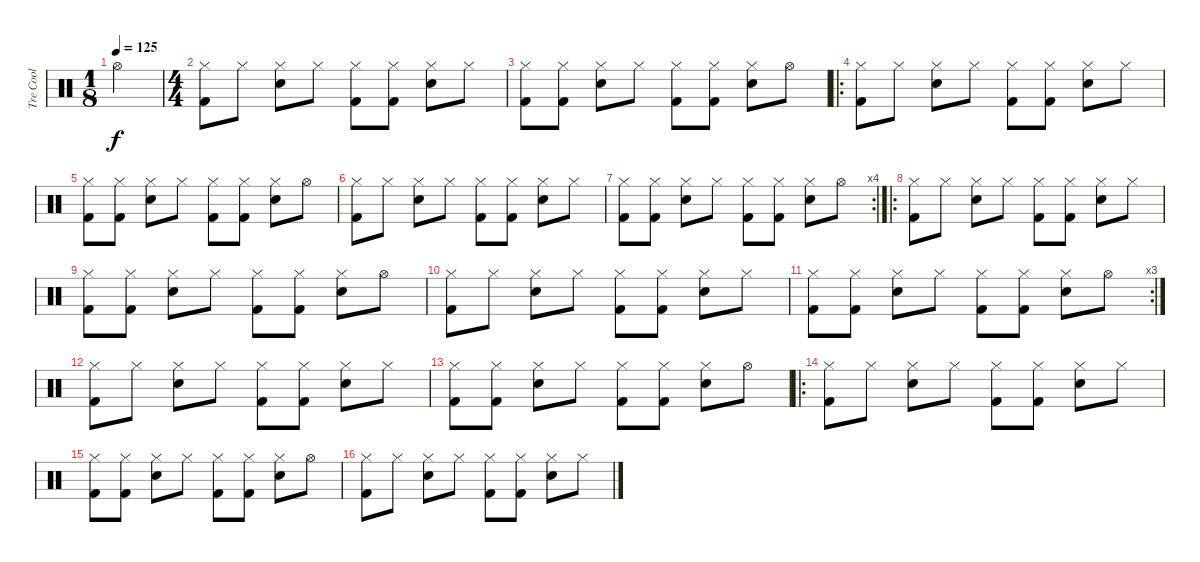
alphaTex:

\track ("Tre Cool" "Tre Cool") {instrument percussion}
\staff {score}
\articulation defaults
\ts (1 8)
\tempo 125
\clef neutral
\ks c "Hi-Hat (open)".4{dy f}
|
\ts (4 4)
("Hi-Hat (closed)" "Kick (hit) 2").8 "Hi-Hat (closed)".8 ("Hi-Hat (closed)" "Electric Snare (hit)").8 "Hi-Hat (closed)".8 ("Hi-Hat (closed)" "Kick (hit) 2").8 ("Hi-Hat (closed)" "Kick (hit) 2").8 ("Hi-Hat (closed)" "Electric Snare (hit)").8 "Hi-Hat (closed)".8 |
("Hi-Hat (closed)" "Kick (hit) 2").8 ("Hi-Hat (closed)" "Kick (hit) 2").8 ("Hi-Hat (closed)" "Electric Snare (hit)").8 "Hi-Hat (closed)".8 ("Hi-Hat (closed)" "Kick (hit) 2").8 ("Hi-Hat (closed)" "Kick (hit) 2").8 ("Hi-Hat (closed)" "Electric Snare (hit)").8 "Hi-Hat (open)".8 |
\ro
("Hi-Hat (closed)" "Kick (hit) 2").8 "Hi-Hat (closed)".8 ("Hi-Hat (closed)" "Electric Snare (hit)").8 "Hi-Hat (closed)".8 ("Hi-Hat (closed)" "Kick (hit) 2").8 ("Hi-Hat (closed)" "Kick (hit) 2").8 ("Hi-Hat (closed)" "Electric Snare (hit)").8 "Hi-Hat (closed)".8 |
("Hi-Hat (closed)" "Kick (hit) 2").8 ("Hi-Hat (closed)" "Kick (hit) 2").8 ("Hi-Hat (closed)" "Electric Snare (hit)").8 "Hi-Hat (closed)".8 ("Hi-Hat (closed)" "Kick (hit) 2").8 ("Hi-Hat (closed)" "Kick (hit) 2").8 ("Hi-Hat (closed)" "Electric Snare (hit)").8 "Hi-Hat (open)".8 |
("Hi-Hat (closed)" "Kick (hit) 2").8 "Hi-Hat (closed)".8 ("Hi-Hat (closed)" "Electric Snare (hit)").8 "Hi-Hat (closed)".8 ("Hi-Hat (closed)" "Kick (hit) 2").8 ("Hi-Hat (closed)" "Kick (hit) 2").8 ("Hi-Hat (closed)" "Electric Snare (hit)").8 "Hi-Hat (closed)".8 |
\rc 4
("Hi-Hat (closed)" "Kick (hit) 2").8 ("Hi-Hat (closed)" "Kick (hit) 2").8 ("Hi-Hat (closed)" "Electric Snare (hit)").8 "Hi-Hat (closed)".8 ("Hi-Hat (closed)" "Kick (hit) 2").8 ("Hi-Hat (closed)" "Kick (hit) 2").8 ("Hi-Hat (closed)" "Electric Snare (hit)").8 "Hi-Hat (open)".8 |
\ro
("Hi-Hat (closed)" "Kick (hit) 2").8 "Hi-Hat (closed)".8 ("Hi-Hat (closed)" "Electric Snare (hit)").8 "Hi-Hat (closed)".8 ("Hi-Hat (closed)" "Kick (hit) 2").8 ("Hi-Hat (closed)" "Kick (hit) 2").8 ("Hi-Hat (closed)" "Electric Snare (hit)").8 "Hi-Hat (closed)".8 |
("Hi-Hat (closed)" "Kick (hit) 2").8 ("Hi-Hat (closed)" "Kick (hit) 2").8 ("Hi-Hat (closed)" "Electric Snare (hit)").8 "Hi-Hat (closed)".8 ("Hi-Hat (closed)" "Kick (hit) 2").8 ("Hi-Hat (closed)" "Kick (hit) 2").8 ("Hi-Hat (closed)" "Electric Snare (hit)").8 "Hi-Hat (open)".8 |
("Hi-Hat (closed)" "Kick (hit) 2").8 "Hi-Hat (closed)".8 ("Hi-Hat (closed)" "Electric Snare (hit)").8 "Hi-Hat (closed)".8 ("Hi-Hat (closed)" "Kick (hit) 2").8 ("Hi-Hat (closed)" "Kick (hit) 2").8 ("Hi-Hat (closed)" "Electric Snare (hit)").8 "Hi-Hat (closed)".8 |
\rc 3
("Hi-Hat (closed)" "Kick (hit) 2").8 ("Hi-Hat (closed)" "Kick (hit) 2").8 ("Hi-Hat (closed)" "Electric Snare (hit)").8 "Hi-Hat (closed)".8 ("Hi-Hat (closed)" "Kick (hit) 2").8 ("Hi-Hat (closed)" "Kick (hit) 2").8 ("Hi-Hat (closed)" "Electric Snare (hit)").8 "Hi-Hat (open)".8 |
("Hi-Hat (closed)" "Kick (hit) 2").8 "Hi-Hat (closed)".8 ("Hi-Hat (closed)" "Electric Snare (hit)").8 "Hi-Hat (closed)".8 ("Hi-Hat (closed)" "Kick (hit) 2").8 ("Hi-Hat (closed)" "Kick (hit) 2").8 ("Hi-Hat (closed)" "Electric Snare (hit)").8 "Hi-Hat (closed)".8 |
("Hi-Hat (closed)" "Kick (hit) 2").8 ("Hi-Hat (closed)" "Kick (hit) 2").8 ("Hi-Hat (closed)" "Electric Snare (hit)").8 "Hi-Hat (closed)".8 ("Hi-Hat (closed)" "Kick (hit) 2").8 ("Hi-Hat (closed)" "Kick (hit) 2").8 ("Hi-Hat (closed)" "Electric Snare (hit)").8 "Hi-Hat (open)".8 |
\ro
("Hi-Hat (closed)" "Kick (hit) 2").8 "Hi-Hat (closed)".8 ("Hi-Hat (closed)" "Electric Snare (hit)").8 "Hi-Hat (closed)".8 ("Hi-Hat (closed)" "Kick (hit) 2").8 ("Hi-Hat (closed)" "Kick (hit) 2").8 ("Hi-Hat (closed)" "Electric Snare (hit)").8 "Hi-Hat (closed)".8 |
("Hi-Hat (closed)" "Kick (hit) 2").8 ("Hi-Hat (closed)" "Kick (hit) 2").8 ("Hi-Hat (closed)" "Electric Snare (hit)").8 "Hi-Hat (closed)".8 ("Hi-Hat (closed)" "Kick (hit) 2").8 ("Hi-Hat (closed)" "Kick (hit) 2").8 ("Hi-Hat (closed)" "Electric Snare (hit)").8 "Hi-Hat (open)".8 |
("Hi-Hat (closed)" "Kick (hit) 2").8 "Hi-Hat (closed)".8 ("Hi-Hat (closed)" "Electric Snare (hit)").8 "Hi-Hat (closed)".8 ("Hi-Hat (closed)" "Kick (hit) 2").8 ("Hi-Hat (closed)" "Kick (hit) 2").8 ("Hi-Hat (closed)" "Electric Snare (hit)").8 "Hi-Hat (closed)".8
